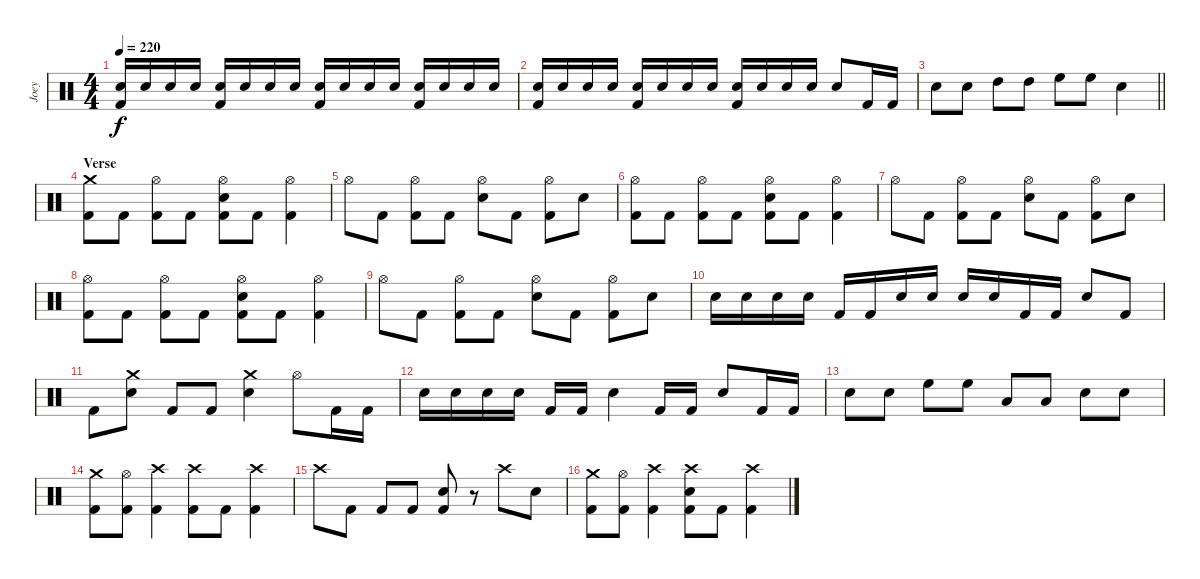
\track ("Joey" "Joey") {instrument percussion}
\staff {score}
\articulation defaults
\ts (4 4)
\tempo 220
\clef neutral
\ks c
("Electric Snare (hit)" "Kick (hit) 2").16{dy f} "Electric Snare (hit)".16 "Electric Snare (hit)".16 "Electric Snare (hit)".16 ("Electric Snare (hit)" "Kick (hit) 2").16 "Electric Snare (hit)".16 "Electric Snare (hit)".16 "Electric Snare (hit)".16 ("Electric Snare (hit)" "Kick (hit) 2").16 "Electric Snare (hit)".16 "Electric Snare (hit)".16 "Electric Snare (hit)".16 ("Electric Snare (hit)" "Kick (hit) 2").16 "Electric Snare (hit)".16 "Electric Snare (hit)".16 "Electric Snare (hit)".16 |
("Electric Snare (hit)" "Kick (hit) 2").16 "Electric Snare (hit)".16 "Electric Snare (hit)".16 "Electric Snare (hit)".16 ("Electric Snare (hit)" "Kick (hit) 2").16 "Electric Snare (hit)".16 "Electric Snare (hit)".16 "Electric Snare (hit)".16 ("Electric Snare (hit)" "Kick (hit) 2").16 "Electric Snare (hit)".16 "Electric Snare (hit)".16 "Electric Snare (hit)".16 "Electric Snare (hit)".8 "Kick (hit) 2".16 "Kick (hit) 2".16 |
\barLineRight lightlight "Electric Snare (hit)".8 "Electric Snare (hit)".8 "High Tom (hit)".8 "High Tom (hit)".8 "High Floor Tom (hit)".8 "High Floor Tom (hit)".8 "Electric Snare (hit)".4
|
\section ("" "Verse")
("Crash medium (hit)" "Kick (hit) 2").8 "Kick (hit) 2".8 ("Hi-Hat (open)" "Kick (hit) 2").8 "Kick (hit) 2".8 ("Hi-Hat (open)" "Electric Snare (hit)" "Kick (hit) 2").8 "Kick (hit) 2".8 ("Hi-Hat (open)" "Kick (hit) 2").4 |
"Hi-Hat (open)".8 "Kick (hit) 2".8 ("Hi-Hat (open)" "Kick (hit) 2").8 "Kick (hit) 2".8 ("Hi-Hat (open)" "Electric Snare (hit)").8 "Kick (hit) 2".8 ("Hi-Hat (open)" "Kick (hit) 2").8 "Electric Snare (hit)".8 |
("Hi-Hat (open)" "Kick (hit) 2").8 "Kick (hit) 2".8 ("Hi-Hat (open)" "Kick (hit) 2").8 "Kick (hit) 2".8 ("Hi-Hat (open)" "Electric Snare (hit)" "Kick (hit) 2").8 "Kick (hit) 2".8 ("Hi-Hat (open)" "Kick (hit) 2").4 |
"Hi-Hat (open)".8 "Kick (hit) 2".8 ("Hi-Hat (open)" "Kick (hit) 2").8 "Kick (hit) 2".8 ("Hi-Hat (open)" "Electric Snare (hit)").8 "Kick (hit) 2".8 ("Hi-Hat (open)" "Kick (hit) 2").8 "Electric Snare (hit)".8 |
("Hi-Hat (open)" "Kick (hit) 2").8 "Kick (hit) 2".8 ("Hi-Hat (open)" "Kick (hit) 2").8 "Kick (hit) 2".8 ("Hi-Hat (open)" "Electric Snare (hit)" "Kick (hit) 2").8 "Kick (hit) 2".8 ("Hi-Hat (open)" "Kick (hit) 2").4 |
"Hi-Hat (open)".8 "Kick (hit) 2".8 ("Hi-Hat (open)" "Kick (hit) 2").8 "Kick (hit) 2".8 ("Hi-Hat (open)" "Electric Snare (hit)").8 "Kick (hit) 2".8 ("Hi-Hat (open)" "Kick (hit) 2").8 "Electric Snare (hit)".8 |
"Electric Snare (hit)".16 "Electric Snare (hit)".16 "Electric Snare (hit)".16 "Electric Snare (hit)".16 "Kick (hit) 2".16 "Kick (hit) 2".16 "Electric Snare (hit)".16 "Electric Snare (hit)".16 "Electric Snare (hit)".16 "Electric Snare (hit)".16 "Kick (hit) 2".16 "Kick (hit) 2".16 "Electric Snare (hit)".8 "Kick (hit) 2".8 |
"Kick (hit) 2".8 ("Crash medium (hit)" "Electric Snare (hit)").8 "Kick (hit) 2".8 "Kick (hit) 2".8 ("Crash medium (hit)" "Electric Snare (hit)").4 "Hi-Hat (open)".8 "Kick (hit) 2".16 "Kick (hit) 2".16 |
"Electric Snare (hit)".16 "Electric Snare (hit)".16 "Electric Snare (hit)".16 "Electric Snare (hit)".16 "Kick (hit) 2".16 "Kick (hit) 2".16 "Electric Snare (hit)".4 "Kick (hit) 2".16 "Kick (hit) 2".16 "Electric Snare (hit)".8 "Kick (hit) 2".16 "Kick (hit) 2".16 |
"Electric Snare (hit)".8 "Electric Snare (hit)".8 "High Floor Tom (hit)".8 "High Floor Tom (hit)".8 "Low Floor Tom (hit)".8 "Low Floor Tom (hit)".8 "Electric Snare (hit)".8 "Electric Snare (hit)".8 |
("Crash medium (hit)" "Kick (hit) 2").8 ("Hi-Hat (open)" "Kick (hit) 2").8 ("Crash high (hit)" "Kick (hit) 2").4 ("Crash high (hit)" "Kick (hit) 2").8 "Kick (hit) 2".8 ("Crash high (hit)" "Kick (hit) 2").4 |
"Crash high (hit)".8 "Kick (hit) 2".8 "Kick (hit) 2".8 "Kick (hit) 2".8 ("Electric Snare (hit)" "Kick (hit) 2").8 r.8 "Crash high (hit)".8 "Electric Snare (hit)".8 |
("Crash medium (hit)" "Kick (hit) 2").8 ("Hi-Hat (open)" "Kick (hit) 2").8 ("Crash high (hit)" "Kick (hit) 2").4 ("Crash high (hit)" "Electric Snare (hit)" "Kick (hit) 2").8 "Kick (hit) 2".8 ("Crash high (hit)" "Kick (hit) 2").4
